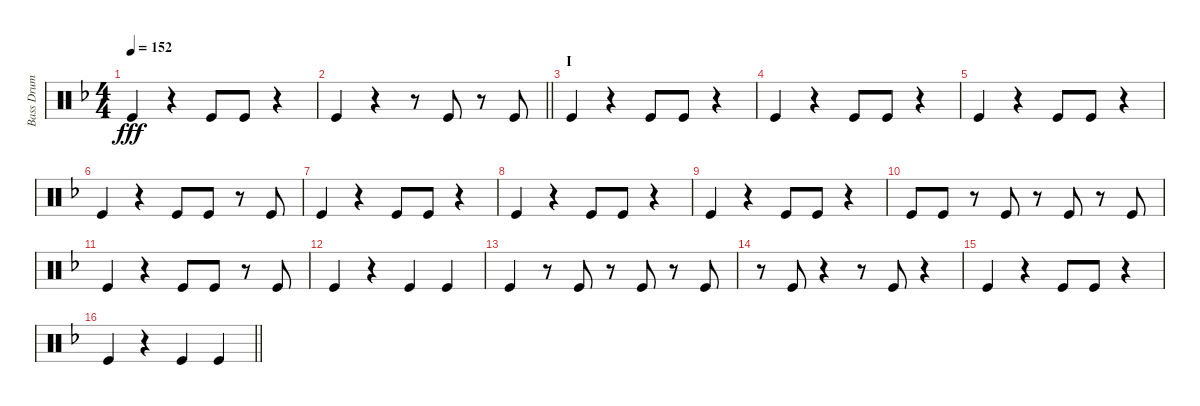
\track ("Bass Drum" "Bass Drum") {instrument percussion}
\staff {score}
\articulation defaults
\ts (4 4)
\tempo 152
\clef neutral
\ks f "Kick (hit)".4{dy fff}
r.4 "Kick (hit)".8 "Kick (hit)".8 r.4 |
\barLineRight lightlight "Kick (hit)".4
r.4 r.8 "Kick (hit)".8 r.8 "Kick (hit)".8 |
\section ("" "I")
"Kick (hit)".4 r.4 "Kick (hit)".8 "Kick (hit)".8 r.4 |
"Kick (hit)".4 r.4 "Kick (hit)".8 "Kick (hit)".8 r.4 |
"Kick (hit)".4 r.4 "Kick (hit)".8 "Kick (hit)".8 r.4 |
"Kick (hit)".4 r.4 "Kick (hit)".8 "Kick (hit)".8 r.8 "Kick (hit)".8 |
"Kick (hit)".4 r.4 "Kick (hit)".8 "Kick (hit)".8 r.4 |
"Kick (hit)".4 r.4 "Kick (hit)".8 "Kick (hit)".8 r.4 |
"Kick (hit)".4 r.4 "Kick (hit)".8 "Kick (hit)".8 r.4 |
"Kick (hit)".8 "Kick (hit)".8 r.8 "Kick (hit)".8 r.8 "Kick (hit)".8 r.8 "Kick (hit)".8 |
"Kick (hit)".4 r.4 "Kick (hit)".8 "Kick (hit)".8 r.8 "Kick (hit)".8 |
"Kick (hit)".4 r.4 "Kick (hit)".4 "Kick (hit)".4 |
"Kick (hit)".4 r.8 "Kick (hit)".8 r.8 "Kick (hit)".8 r.8 "Kick (hit)".8 |
r.8 "Kick (hit)".8 r.4 r.8 "Kick (hit)".8 r.4 |
"Kick (hit)".4 r.4 "Kick (hit)".8 "Kick (hit)".8 r.4 |
\barLineRight lightlight "Kick (hit)".4
r.4 "Kick (hit)".4 "Kick (hit)".4
